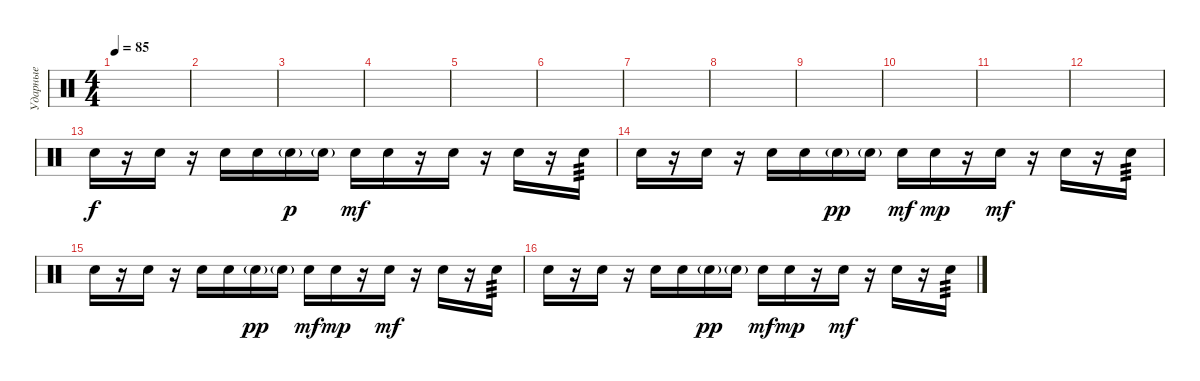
\track ("Ударные" "Ударные") {instrument percussion}
\staff {score}
\articulation defaults
\ts (4 4)
\tempo 85
\clef neutral
\ks c
|
|
|
|
|
|
|
|
|
|
|
|
"Hand Clap (hit)".16 r.16 "Hand Clap (hit)".16 r.16 "Hand Clap (hit)".16 "Hand Clap (hit)".16 "Hand Clap (hit)"{g}.16{dy p} "Hand Clap (hit)"{g}.16 "Hand Clap (hit)".16{dy mf} "Hand Clap (hit)".16 r.16 "Hand Clap (hit)".16 r.16 "Hand Clap (hit)".16 r.16 "Hand Clap (hit)".16{tp 3} |
"Hand Clap (hit)".16 r.16 "Hand Clap (hit)".16 r.16 "Hand Clap (hit)".16 "Hand Clap (hit)".16 "Hand Clap (hit)"{g}.16{dy pp} "Hand Clap (hit)"{g}.16 "Hand Clap (hit)".16{dy mf} "Hand Clap (hit)".16{dy mp} r.16 "Hand Clap (hit)".16{dy mf} r.16 "Hand Clap (hit)".16 r.16 "Hand Clap (hit)".16{tp 3} |
"Hand Clap (hit)".16 r.16 "Hand Clap (hit)".16 r.16 "Hand Clap (hit)".16 "Hand Clap (hit)".16 "Hand Clap (hit)"{g}.16{dy pp} "Hand Clap (hit)"{g}.16 "Hand Clap (hit)".16{dy mf} "Hand Clap (hit)".16{dy mp} r.16 "Hand Clap (hit)".16{dy mf} r.16 "Hand Clap (hit)".16 r.16 "Hand Clap (hit)".16{tp 3} |
"Hand Clap (hit)".16 r.16 "Hand Clap (hit)".16 r.16 "Hand Clap (hit)".16 "Hand Clap (hit)".16 "Hand Clap (hit)"{g}.16{dy pp} "Hand Clap (hit)"{g}.16 "Hand Clap (hit)".16{dy mf} "Hand Clap (hit)".16{dy mp} r.16 "Hand Clap (hit)".16{dy mf} r.16 "Hand Clap (hit)".16 r.16 "Hand Clap (hit)".16{tp 3}
